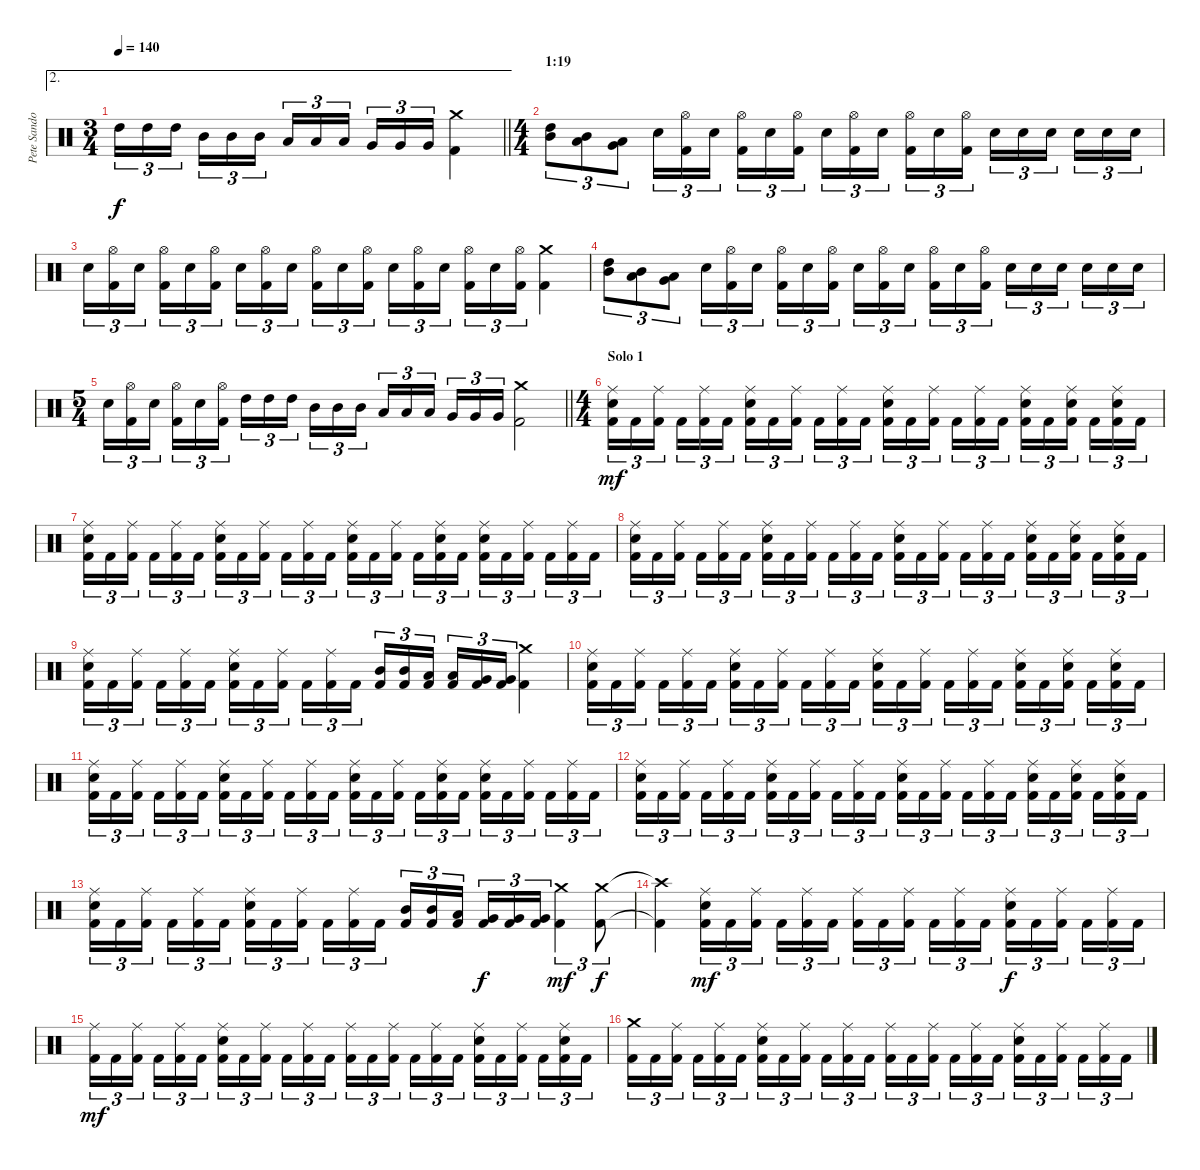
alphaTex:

\track ("Pete Sandoval" "Pete Sando") {instrument percussion}
\staff {score}
\articulation defaults
\ae 2
\ts (3 4)
\tempo 140
\clef neutral
\barLineRight lightlight
\ks c "High Tom (hit)".16{tu (3 2) dy f} "High Tom (hit)".16{tu (3 2)} "High Tom (hit)".16{tu (3 2) beam splitsecondary} "Mid Tom (hit)".16{tu (3 2)} "Mid Tom (hit)".16{tu (3 2)} "Mid Tom (hit)".16{tu (3 2)} "Low Tom (hit)".16{tu (3 2)} "Low Tom (hit)".16{tu (3 2)} "Low Tom (hit)".16{tu (3 2) beam splitsecondary} "Very Low Tom (hit)".16{tu (3 2)} "Very Low Tom (hit)".16{tu (3 2)} "Very Low Tom (hit)".16{tu (3 2)}
("Crash medium (hit)" "Kick (hit) 2").4 |
\ts (4 4)
\section ("" "1:19")
("High Tom (hit)" "Mid Tom (hit)").8{tu (3 2)} ("Mid Tom (hit)" "Low Tom (hit)").8{tu (3 2)} ("Low Tom (hit)" "Very Low Tom (hit)").8{tu (3 2)} "Electric Snare (hit)".16{tu (3 2)} ("Hi-Hat (open)" "Kick (hit) 2").16{tu (3 2)} "Electric Snare (hit)".16{tu (3 2) beam splitsecondary} ("Hi-Hat (open)" "Kick (hit) 2").16{tu (3 2)} "Electric Snare (hit)".16{tu (3 2)} ("Hi-Hat (open)" "Kick (hit) 2").16{tu (3 2)} "Electric Snare (hit)".16{tu (3 2)} ("Hi-Hat (open)" "Kick (hit) 2").16{tu (3 2)} "Electric Snare (hit)".16{tu (3 2) beam splitsecondary} ("Hi-Hat (open)" "Kick (hit) 2").16{tu (3 2)} "Electric Snare (hit)".16{tu (3 2)} ("Hi-Hat (open)" "Kick (hit) 2").16{tu (3 2)} "Electric Snare (hit)".16{tu (3 2)} "Electric Snare (hit)".16{tu (3 2)} "Electric Snare (hit)".16{tu (3 2) beam splitsecondary} "Electric Snare (hit)".16{tu (3 2)} "Electric Snare (hit)".16{tu (3 2)} "Electric Snare (hit)".16{tu (3 2)} |
"Electric Snare (hit)".16{tu (3 2)} ("Hi-Hat (open)" "Kick (hit) 2").16{tu (3 2)} "Electric Snare (hit)".16{tu (3 2) beam splitsecondary} ("Hi-Hat (open)" "Kick (hit) 2").16{tu (3 2)} "Electric Snare (hit)".16{tu (3 2)} ("Hi-Hat (open)" "Kick (hit) 2").16{tu (3 2)} "Electric Snare (hit)".16{tu (3 2)} ("Hi-Hat (open)" "Kick (hit) 2").16{tu (3 2)} "Electric Snare (hit)".16{tu (3 2) beam splitsecondary} ("Hi-Hat (open)" "Kick (hit) 2").16{tu (3 2)} "Electric Snare (hit)".16{tu (3 2)} ("Hi-Hat (open)" "Kick (hit) 2").16{tu (3 2)} "Electric Snare (hit)".16{tu (3 2)} ("Hi-Hat (open)" "Kick (hit) 2").16{tu (3 2)} "Electric Snare (hit)".16{tu (3 2) beam splitsecondary} ("Hi-Hat (open)" "Kick (hit) 2").16{tu (3 2)} "Electric Snare (hit)".16{tu (3 2)} ("Hi-Hat (open)" "Kick (hit) 2").16{tu (3 2)} ("Crash medium (hit)" "Kick (hit) 2").4 |
("High Tom (hit)" "Mid Tom (hit)").8{tu (3 2)} ("Mid Tom (hit)" "Low Tom (hit)").8{tu (3 2)} ("Low Tom (hit)" "Very Low Tom (hit)").8{tu (3 2)} "Electric Snare (hit)".16{tu (3 2)} ("Hi-Hat (open)" "Kick (hit) 2").16{tu (3 2)} "Electric Snare (hit)".16{tu (3 2) beam splitsecondary} ("Hi-Hat (open)" "Kick (hit) 2").16{tu (3 2)} "Electric Snare (hit)".16{tu (3 2)} ("Hi-Hat (open)" "Kick (hit) 2").16{tu (3 2)} "Electric Snare (hit)".16{tu (3 2)} ("Hi-Hat (open)" "Kick (hit) 2").16{tu (3 2)} "Electric Snare (hit)".16{tu (3 2) beam splitsecondary} ("Hi-Hat (open)" "Kick (hit) 2").16{tu (3 2)} "Electric Snare (hit)".16{tu (3 2)} ("Hi-Hat (open)" "Kick (hit) 2").16{tu (3 2)} "Electric Snare (hit)".16{tu (3 2)} "Electric Snare (hit)".16{tu (3 2)} "Electric Snare (hit)".16{tu (3 2) beam splitsecondary} "Electric Snare (hit)".16{tu (3 2)} "Electric Snare (hit)".16{tu (3 2)} "Electric Snare (hit)".16{tu (3 2)} |
\ts (5 4)
\barLineRight lightlight "Electric Snare (hit)".16{tu (3 2)}
("Hi-Hat (open)" "Kick (hit) 2").16{tu (3 2)} "Electric Snare (hit)".16{tu (3 2) beam splitsecondary} ("Hi-Hat (open)" "Kick (hit) 2").16{tu (3 2)} "Electric Snare (hit)".16{tu (3 2)} ("Hi-Hat (open)" "Kick (hit) 2").16{tu (3 2)} "High Tom (hit)".16{tu (3 2)} "High Tom (hit)".16{tu (3 2)} "High Tom (hit)".16{tu (3 2) beam splitsecondary} "Mid Tom (hit)".16{tu (3 2)} "Mid Tom (hit)".16{tu (3 2)} "Mid Tom (hit)".16{tu (3 2)} "Low Tom (hit)".16{tu (3 2)} "Low Tom (hit)".16{tu (3 2)} "Low Tom (hit)".16{tu (3 2) beam splitsecondary} "Very Low Tom (hit)".16{tu (3 2)} "Very Low Tom (hit)".16{tu (3 2)} "Very Low Tom (hit)".16{tu (3 2)} ("Crash medium (hit)" "Kick (hit) 2").2 |
\ts (4 4)
\section ("" "Solo 1")
("Ride (middle)" "Electric Snare (hit)" "Kick (hit) 2").16{tu (3 2) dy mf} "Kick (hit) 2".16{tu (3 2)} ("Ride (middle)" "Kick (hit) 2").16{tu (3 2) beam splitsecondary} "Kick (hit) 2".16{tu (3 2)} ("Ride (middle)" "Kick (hit) 2").16{tu (3 2)} "Kick (hit) 2".16{tu (3 2)} ("Ride (middle)" "Electric Snare (hit)" "Kick (hit) 2").16{tu (3 2)} "Kick (hit) 2".16{tu (3 2)} ("Ride (middle)" "Kick (hit) 2").16{tu (3 2) beam splitsecondary} "Kick (hit) 2".16{tu (3 2)} ("Ride (middle)" "Kick (hit) 2").16{tu (3 2)} "Kick (hit) 2".16{tu (3 2)} ("Ride (middle)" "Electric Snare (hit)" "Kick (hit) 2").16{tu (3 2)} "Kick (hit) 2".16{tu (3 2)} ("Ride (middle)" "Kick (hit) 2").16{tu (3 2) beam splitsecondary} "Kick (hit) 2".16{tu (3 2)} ("Ride (middle)" "Kick (hit) 2").16{tu (3 2)} "Kick (hit) 2".16{tu (3 2)} ("Ride (middle)" "Electric Snare (hit)" "Kick (hit) 2").16{tu (3 2)} "Kick (hit) 2".16{tu (3 2)} ("Ride (middle)" "Electric Snare (hit)" "Kick (hit) 2").16{tu (3 2) beam splitsecondary} "Kick (hit) 2".16{tu (3 2)} ("Ride (middle)" "Electric Snare (hit)" "Kick (hit) 2").16{tu (3 2)} "Kick (hit) 2".16{tu (3 2)} |
("Ride (middle)" "Electric Snare (hit)" "Kick (hit) 2").16{tu (3 2)} "Kick (hit) 2".16{tu (3 2)} ("Ride (middle)" "Kick (hit) 2").16{tu (3 2) beam splitsecondary} "Kick (hit) 2".16{tu (3 2)} ("Ride (middle)" "Kick (hit) 2").16{tu (3 2)} "Kick (hit) 2".16{tu (3 2)} ("Ride (middle)" "Electric Snare (hit)" "Kick (hit) 2").16{tu (3 2)} "Kick (hit) 2".16{tu (3 2)} ("Ride (middle)" "Kick (hit) 2").16{tu (3 2) beam splitsecondary} "Kick (hit) 2".16{tu (3 2)} ("Ride (middle)" "Kick (hit) 2").16{tu (3 2)} "Kick (hit) 2".16{tu (3 2)} ("Ride (middle)" "Electric Snare (hit)" "Kick (hit) 2").16{tu (3 2)} "Kick (hit) 2".16{tu (3 2)} ("Ride (middle)" "Kick (hit) 2").16{tu (3 2) beam splitsecondary} "Kick (hit) 2".16{tu (3 2)} ("Ride (middle)" "Electric Snare (hit)" "Kick (hit) 2").16{tu (3 2)} "Kick (hit) 2".16{tu (3 2)} ("Ride (middle)" "Electric Snare (hit)" "Kick (hit) 2").16{tu (3 2)} "Kick (hit) 2".16{tu (3 2)} ("Ride (middle)" "Kick (hit) 2").16{tu (3 2) beam splitsecondary} "Kick (hit) 2".16{tu (3 2)} ("Ride (middle)" "Kick (hit) 2").16{tu (3 2)} "Kick (hit) 2".16{tu (3 2)} |
("Ride (middle)" "Electric Snare (hit)" "Kick (hit) 2").16{tu (3 2)} "Kick (hit) 2".16{tu (3 2)} ("Ride (middle)" "Kick (hit) 2").16{tu (3 2) beam splitsecondary} "Kick (hit) 2".16{tu (3 2)} ("Ride (middle)" "Kick (hit) 2").16{tu (3 2)} "Kick (hit) 2".16{tu (3 2)} ("Ride (middle)" "Electric Snare (hit)" "Kick (hit) 2").16{tu (3 2)} "Kick (hit) 2".16{tu (3 2)} ("Ride (middle)" "Kick (hit) 2").16{tu (3 2) beam splitsecondary} "Kick (hit) 2".16{tu (3 2)} ("Ride (middle)" "Kick (hit) 2").16{tu (3 2)} "Kick (hit) 2".16{tu (3 2)} ("Ride (middle)" "Electric Snare (hit)" "Kick (hit) 2").16{tu (3 2)} "Kick (hit) 2".16{tu (3 2)} ("Ride (middle)" "Kick (hit) 2").16{tu (3 2) beam splitsecondary} "Kick (hit) 2".16{tu (3 2)} ("Ride (middle)" "Kick (hit) 2").16{tu (3 2)} "Kick (hit) 2".16{tu (3 2)} ("Ride (middle)" "Electric Snare (hit)" "Kick (hit) 2").16{tu (3 2)} "Kick (hit) 2".16{tu (3 2)} ("Ride (middle)" "Electric Snare (hit)" "Kick (hit) 2").16{tu (3 2) beam splitsecondary} "Kick (hit) 2".16{tu (3 2)} ("Ride (middle)" "Electric Snare (hit)" "Kick (hit) 2").16{tu (3 2)} "Kick (hit) 2".16{tu (3 2)} |
("Ride (middle)" "Electric Snare (hit)" "Kick (hit) 2").16{tu (3 2)} "Kick (hit) 2".16{tu (3 2)} ("Ride (middle)" "Kick (hit) 2").16{tu (3 2) beam splitsecondary} "Kick (hit) 2".16{tu (3 2)} ("Ride (middle)" "Kick (hit) 2").16{tu (3 2)} "Kick (hit) 2".16{tu (3 2)} ("Ride (middle)" "Electric Snare (hit)" "Kick (hit) 2").16{tu (3 2)} "Kick (hit) 2".16{tu (3 2)} ("Ride (middle)" "Kick (hit) 2").16{tu (3 2) beam splitsecondary} "Kick (hit) 2".16{tu (3 2)} ("Ride (middle)" "Kick (hit) 2").16{tu (3 2)} "Kick (hit) 2".16{tu (3 2)} ("Mid Tom (hit)" "Kick (hit) 2").16{tu (3 2)} ("Mid Tom (hit)" "Kick (hit) 2").16{tu (3 2)} ("Low Tom (hit)" "Kick (hit) 2").16{tu (3 2) beam splitsecondary} ("Low Tom (hit)" "Kick (hit) 2").16{tu (3 2)} ("Very Low Tom (hit)" "Kick (hit) 2").16{tu (3 2)} ("Very Low Tom (hit)" "Kick (hit) 2").16{tu (3 2)} ("Crash medium (hit)" "Kick (hit) 2").4 |
("Ride (middle)" "Electric Snare (hit)" "Kick (hit) 2").16{tu (3 2)} "Kick (hit) 2".16{tu (3 2)} ("Ride (middle)" "Kick (hit) 2").16{tu (3 2) beam splitsecondary} "Kick (hit) 2".16{tu (3 2)} ("Ride (middle)" "Kick (hit) 2").16{tu (3 2)} "Kick (hit) 2".16{tu (3 2)} ("Ride (middle)" "Electric Snare (hit)" "Kick (hit) 2").16{tu (3 2)} "Kick (hit) 2".16{tu (3 2)} ("Ride (middle)" "Kick (hit) 2").16{tu (3 2) beam splitsecondary} "Kick (hit) 2".16{tu (3 2)} ("Ride (middle)" "Kick (hit) 2").16{tu (3 2)} "Kick (hit) 2".16{tu (3 2)} ("Ride (middle)" "Electric Snare (hit)" "Kick (hit) 2").16{tu (3 2)} "Kick (hit) 2".16{tu (3 2)} ("Ride (middle)" "Kick (hit) 2").16{tu (3 2) beam splitsecondary} "Kick (hit) 2".16{tu (3 2)} ("Ride (middle)" "Kick (hit) 2").16{tu (3 2)} "Kick (hit) 2".16{tu (3 2)} ("Ride (middle)" "Electric Snare (hit)" "Kick (hit) 2").16{tu (3 2)} "Kick (hit) 2".16{tu (3 2)} ("Ride (middle)" "Electric Snare (hit)" "Kick (hit) 2").16{tu (3 2) beam splitsecondary} "Kick (hit) 2".16{tu (3 2)} ("Ride (middle)" "Electric Snare (hit)" "Kick (hit) 2").16{tu (3 2)} "Kick (hit) 2".16{tu (3 2)} |
("Ride (middle)" "Electric Snare (hit)" "Kick (hit) 2").16{tu (3 2)} "Kick (hit) 2".16{tu (3 2)} ("Ride (middle)" "Kick (hit) 2").16{tu (3 2) beam splitsecondary} "Kick (hit) 2".16{tu (3 2)} ("Ride (middle)" "Kick (hit) 2").16{tu (3 2)} "Kick (hit) 2".16{tu (3 2)} ("Ride (middle)" "Electric Snare (hit)" "Kick (hit) 2").16{tu (3 2)} "Kick (hit) 2".16{tu (3 2)} ("Ride (middle)" "Kick (hit) 2").16{tu (3 2) beam splitsecondary} "Kick (hit) 2".16{tu (3 2)} ("Ride (middle)" "Kick (hit) 2").16{tu (3 2)} "Kick (hit) 2".16{tu (3 2)} ("Ride (middle)" "Electric Snare (hit)" "Kick (hit) 2").16{tu (3 2)} "Kick (hit) 2".16{tu (3 2)} ("Ride (middle)" "Kick (hit) 2").16{tu (3 2) beam splitsecondary} "Kick (hit) 2".16{tu (3 2)} ("Ride (middle)" "Electric Snare (hit)" "Kick (hit) 2").16{tu (3 2)} "Kick (hit) 2".16{tu (3 2)} ("Ride (middle)" "Electric Snare (hit)" "Kick (hit) 2").16{tu (3 2)} "Kick (hit) 2".16{tu (3 2)} ("Ride (middle)" "Kick (hit) 2").16{tu (3 2) beam splitsecondary} "Kick (hit) 2".16{tu (3 2)} ("Ride (middle)" "Kick (hit) 2").16{tu (3 2)} "Kick (hit) 2".16{tu (3 2)} |
("Ride (middle)" "Electric Snare (hit)" "Kick (hit) 2").16{tu (3 2)} "Kick (hit) 2".16{tu (3 2)} ("Ride (middle)" "Kick (hit) 2").16{tu (3 2) beam splitsecondary} "Kick (hit) 2".16{tu (3 2)} ("Ride (middle)" "Kick (hit) 2").16{tu (3 2)} "Kick (hit) 2".16{tu (3 2)} ("Ride (middle)" "Electric Snare (hit)" "Kick (hit) 2").16{tu (3 2)} "Kick (hit) 2".16{tu (3 2)} ("Ride (middle)" "Kick (hit) 2").16{tu (3 2) beam splitsecondary} "Kick (hit) 2".16{tu (3 2)} ("Ride (middle)" "Kick (hit) 2").16{tu (3 2)} "Kick (hit) 2".16{tu (3 2)} ("Ride (middle)" "Electric Snare (hit)" "Kick (hit) 2").16{tu (3 2)} "Kick (hit) 2".16{tu (3 2)} ("Ride (middle)" "Kick (hit) 2").16{tu (3 2) beam splitsecondary} "Kick (hit) 2".16{tu (3 2)} ("Ride (middle)" "Kick (hit) 2").16{tu (3 2)} "Kick (hit) 2".16{tu (3 2)} ("Ride (middle)" "Electric Snare (hit)" "Kick (hit) 2").16{tu (3 2)} "Kick (hit) 2".16{tu (3 2)} ("Ride (middle)" "Electric Snare (hit)" "Kick (hit) 2").16{tu (3 2) beam splitsecondary} "Kick (hit) 2".16{tu (3 2)} ("Ride (middle)" "Electric Snare (hit)" "Kick (hit) 2").16{tu (3 2)} "Kick (hit) 2".16{tu (3 2)} |
("Ride (middle)" "Electric Snare (hit)" "Kick (hit) 2").16{tu (3 2)} "Kick (hit) 2".16{tu (3 2)} ("Ride (middle)" "Kick (hit) 2").16{tu (3 2) beam splitsecondary} "Kick (hit) 2".16{tu (3 2)} ("Ride (middle)" "Kick (hit) 2").16{tu (3 2)} "Kick (hit) 2".16{tu (3 2)} ("Ride (middle)" "Electric Snare (hit)" "Kick (hit) 2").16{tu (3 2)} "Kick (hit) 2".16{tu (3 2)} ("Ride (middle)" "Kick (hit) 2").16{tu (3 2) beam splitsecondary} "Kick (hit) 2".16{tu (3 2)} ("Ride (middle)" "Kick (hit) 2").16{tu (3 2)} "Kick (hit) 2".16{tu (3 2)} ("Mid Tom (hit)" "Kick (hit) 2").16{tu (3 2)} ("Mid Tom (hit)" "Kick (hit) 2").16{tu (3 2)} ("Low Tom (hit)" "Kick (hit) 2").16{tu (3 2) beam splitsecondary} ("Very Low Tom (hit)" "Kick (hit) 2").16{tu (3 2) dy f} ("Very Low Tom (hit)" "Kick (hit) 2").16{tu (3 2)} ("Very Low Tom (hit)" "Kick (hit) 2").16{tu (3 2)} ("Crash medium (hit)" "Kick (hit) 2").4{tu (3 2) dy mf} ("Crash medium (hit)" "Kick (hit) 2").8{tu (3 2) dy f} |
("Crash high (hit)"{t} "Kick (hit) 2"{t}).4 ("Ride (middle)" "Electric Snare (hit)" "Kick (hit) 2").16{tu (3 2) dy mf} "Kick (hit) 2".16{tu (3 2)} ("Ride (middle)" "Kick (hit) 2").16{tu (3 2) beam splitsecondary} "Kick (hit) 2".16{tu (3 2)} ("Ride (middle)" "Kick (hit) 2").16{tu (3 2)} "Kick (hit) 2".16{tu (3 2)} ("Ride (middle)" "Kick (hit) 2").16{tu (3 2)} "Kick (hit) 2".16{tu (3 2)} ("Ride (middle)" "Kick (hit) 2").16{tu (3 2) beam splitsecondary} "Kick (hit) 2".16{tu (3 2)} ("Ride (middle)" "Kick (hit) 2").16{tu (3 2)} "Kick (hit) 2".16{tu (3 2)} ("Ride (middle)" "Electric Snare (hit)" "Kick (hit) 2").16{tu (3 2) dy f} "Kick (hit) 2".16{tu (3 2)} ("Ride (middle)" "Kick (hit) 2").16{tu (3 2) beam splitsecondary} "Kick (hit) 2".16{tu (3 2)} ("Ride (middle)" "Kick (hit) 2").16{tu (3 2)} "Kick (hit) 2".16{tu (3 2)} |
("Ride (middle)" "Kick (hit) 2").16{tu (3 2) dy mf} "Kick (hit) 2".16{tu (3 2)} ("Ride (middle)" "Kick (hit) 2").16{tu (3 2) beam splitsecondary} "Kick (hit) 2".16{tu (3 2)} ("Ride (middle)" "Kick (hit) 2").16{tu (3 2)} "Kick (hit) 2".16{tu (3 2)} ("Ride (middle)" "Electric Snare (hit)" "Kick (hit) 2").16{tu (3 2)} "Kick (hit) 2".16{tu (3 2)} ("Ride (middle)" "Kick (hit) 2").16{tu (3 2) beam splitsecondary} "Kick (hit) 2".16{tu (3 2)} ("Ride (middle)" "Kick (hit) 2").16{tu (3 2)} "Kick (hit) 2".16{tu (3 2)} ("Ride (middle)" "Kick (hit) 2").16{tu (3 2)} "Kick (hit) 2".16{tu (3 2)} ("Ride (middle)" "Kick (hit) 2").16{tu (3 2) beam splitsecondary} "Kick (hit) 2".16{tu (3 2)} ("Ride (middle)" "Kick (hit) 2").16{tu (3 2)} "Kick (hit) 2".16{tu (3 2)} ("Ride (middle)" "Electric Snare (hit)" "Kick (hit) 2").16{tu (3 2)} "Kick (hit) 2".16{tu (3 2)} ("Ride (middle)" "Kick (hit) 2").16{tu (3 2) beam splitsecondary} "Kick (hit) 2".16{tu (3 2)} ("Ride (middle)" "Electric Snare (hit)" "Kick (hit) 2").16{tu (3 2)} "Kick (hit) 2".16{tu (3 2)} |
("Crash medium (hit)" "Kick (hit) 2").16{tu (3 2)} "Kick (hit) 2".16{tu (3 2)} ("Ride (middle)" "Kick (hit) 2").16{tu (3 2) beam splitsecondary} "Kick (hit) 2".16{tu (3 2)} ("Ride (middle)" "Kick (hit) 2").16{tu (3 2)} "Kick (hit) 2".16{tu (3 2)} ("Ride (middle)" "Electric Snare (hit)" "Kick (hit) 2").16{tu (3 2)} "Kick (hit) 2".16{tu (3 2)} ("Ride (middle)" "Kick (hit) 2").16{tu (3 2) beam splitsecondary} "Kick (hit) 2".16{tu (3 2)} ("Ride (middle)" "Kick (hit) 2").16{tu (3 2)} "Kick (hit) 2".16{tu (3 2)} ("Ride (middle)" "Kick (hit) 2").16{tu (3 2)} "Kick (hit) 2".16{tu (3 2)} ("Ride (middle)" "Kick (hit) 2").16{tu (3 2) beam splitsecondary} "Kick (hit) 2".16{tu (3 2)} ("Ride (middle)" "Kick (hit) 2").16{tu (3 2)} "Kick (hit) 2".16{tu (3 2)} ("Ride (middle)" "Electric Snare (hit)" "Kick (hit) 2").16{tu (3 2)} "Kick (hit) 2".16{tu (3 2)} ("Ride (middle)" "Kick (hit) 2").16{tu (3 2) beam splitsecondary} "Kick (hit) 2".16{tu (3 2)} ("Ride (middle)" "Kick (hit) 2").16{tu (3 2)} "Kick (hit) 2".16{tu (3 2)}
